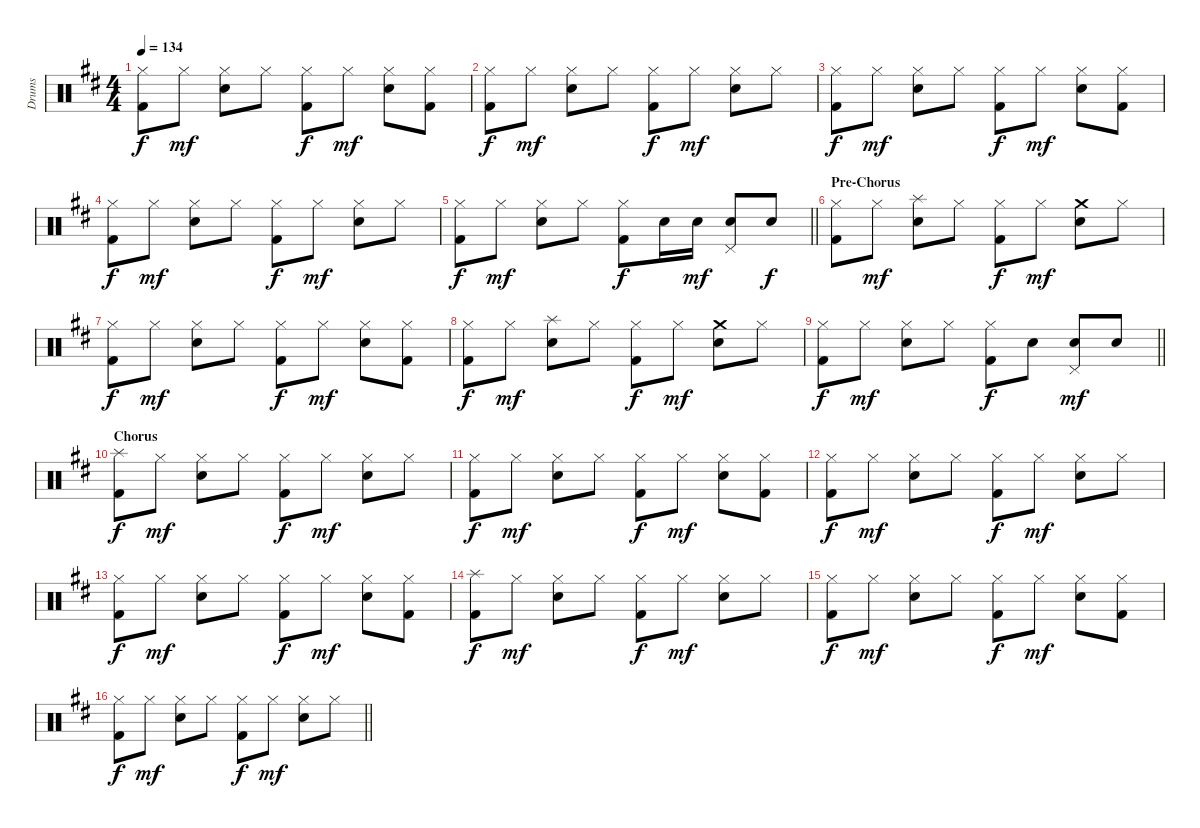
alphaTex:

\track ("Drums" "Drums") {instrument percussion}
\staff {score}
\articulation defaults
\ts (4 4)
\tempo 134
\clef neutral
\ks d
("Hi-Hat (closed)" "Kick (hit) 2").8{dy f} "Hi-Hat (closed)".8{dy mf} ("Hi-Hat (closed)" "Snare (hit) 2").8 "Hi-Hat (closed)".8 ("Hi-Hat (closed)" "Kick (hit) 2").8{dy f} "Hi-Hat (closed)".8{dy mf} ("Hi-Hat (closed)" "Snare (hit) 2").8 ("Hi-Hat (closed)" "Kick (hit) 2").8 |
("Hi-Hat (closed)" "Kick (hit) 2").8{dy f} "Hi-Hat (closed)".8{dy mf} ("Hi-Hat (closed)" "Snare (hit) 2").8 "Hi-Hat (closed)".8 ("Hi-Hat (closed)" "Kick (hit) 2").8{dy f} "Hi-Hat (closed)".8{dy mf} ("Hi-Hat (closed)" "Snare (hit) 2").8 "Hi-Hat (closed)".8 |
("Hi-Hat (closed)" "Kick (hit) 2").8{dy f} "Hi-Hat (closed)".8{dy mf} ("Hi-Hat (closed)" "Snare (hit) 2").8 "Hi-Hat (closed)".8 ("Hi-Hat (closed)" "Kick (hit) 2").8{dy f} "Hi-Hat (closed)".8{dy mf} ("Hi-Hat (closed)" "Snare (hit) 2").8 ("Hi-Hat (closed)" "Kick (hit) 2").8 |
("Hi-Hat (closed)" "Kick (hit) 2").8{dy f} "Hi-Hat (closed)".8{dy mf} ("Hi-Hat (closed)" "Snare (hit) 2").8 "Hi-Hat (closed)".8 ("Hi-Hat (closed)" "Kick (hit) 2").8{dy f} "Hi-Hat (closed)".8{dy mf} ("Hi-Hat (closed)" "Snare (hit) 2").8 "Hi-Hat (closed)".8 |
\barLineRight lightlight
("Hi-Hat (closed)" "Kick (hit) 2").8{dy f} "Hi-Hat (closed)".8{dy mf} ("Hi-Hat (closed)" "Snare (hit) 2").8 "Hi-Hat (closed)".8 ("Hi-Hat (closed)" "Kick (hit) 2").8{dy f} "Snare (hit) 2".16 "Snare (hit) 2".16{dy mf} ("Pedal Hi-Hat (hit)" "Snare (hit) 2").8 "Snare (hit) 2".8{dy f} |
\section ("" "Pre-Chorus")
("Hi-Hat (closed)" "Kick (hit) 2").8 "Hi-Hat (closed)".8{dy mf} ("Splash (hit)" "Snare (hit) 2").8 "Hi-Hat (closed)".8 ("Hi-Hat (closed)" "Kick (hit) 2").8{dy f} "Hi-Hat (closed)".8{dy mf} ("Crash medium (hit)" "Snare (hit) 2").8 "Hi-Hat (closed)".8 |
("Hi-Hat (closed)" "Kick (hit) 2").8{dy f} "Hi-Hat (closed)".8{dy mf} ("Hi-Hat (closed)" "Snare (hit) 2").8 "Hi-Hat (closed)".8 ("Hi-Hat (closed)" "Kick (hit) 2").8{dy f} "Hi-Hat (closed)".8{dy mf} ("Hi-Hat (closed)" "Snare (hit) 2").8 ("Hi-Hat (closed)" "Kick (hit) 2").8 |
("Hi-Hat (closed)" "Kick (hit) 2").8{dy f} "Hi-Hat (closed)".8{dy mf} ("Splash (hit)" "Snare (hit) 2").8 "Hi-Hat (closed)".8 ("Hi-Hat (closed)" "Kick (hit) 2").8{dy f} "Hi-Hat (closed)".8{dy mf} ("Crash medium (hit)" "Snare (hit) 2").8 "Hi-Hat (closed)".8 |
\barLineRight lightlight
("Hi-Hat (closed)" "Kick (hit) 2").8{dy f} "Hi-Hat (closed)".8{dy mf} ("Hi-Hat (closed)" "Snare (hit) 2").8 "Hi-Hat (closed)".8 ("Hi-Hat (closed)" "Kick (hit) 2").8{dy f} "Snare (hit) 2".8 ("Pedal Hi-Hat (hit)" "Snare (hit) 2").8{dy mf} "Snare (hit) 2".8 |
\section ("" "Chorus")
("Splash (hit)" "Kick (hit) 2").8{dy f} "Hi-Hat (closed)".8{dy mf} ("Hi-Hat (closed)" "Snare (hit) 2").8 "Hi-Hat (closed)".8 ("Hi-Hat (closed)" "Kick (hit) 2").8{dy f} "Hi-Hat (closed)".8{dy mf} ("Hi-Hat (closed)" "Snare (hit) 2").8 "Hi-Hat (closed)".8 |
("Hi-Hat (closed)" "Kick (hit) 2").8{dy f} "Hi-Hat (closed)".8{dy mf} ("Hi-Hat (closed)" "Snare (hit) 2").8 "Hi-Hat (closed)".8 ("Hi-Hat (closed)" "Kick (hit) 2").8{dy f} "Hi-Hat (closed)".8{dy mf} ("Hi-Hat (closed)" "Snare (hit) 2").8 ("Hi-Hat (closed)" "Kick (hit) 2").8 |
("Hi-Hat (closed)" "Kick (hit) 2").8{dy f} "Hi-Hat (closed)".8{dy mf} ("Hi-Hat (closed)" "Snare (hit) 2").8 "Hi-Hat (closed)".8 ("Hi-Hat (closed)" "Kick (hit) 2").8{dy f} "Hi-Hat (closed)".8{dy mf} ("Hi-Hat (closed)" "Snare (hit) 2").8 "Hi-Hat (closed)".8 |
("Hi-Hat (closed)" "Kick (hit) 2").8{dy f} "Hi-Hat (closed)".8{dy mf} ("Hi-Hat (closed)" "Snare (hit) 2").8 "Hi-Hat (closed)".8 ("Hi-Hat (closed)" "Kick (hit) 2").8{dy f} "Hi-Hat (closed)".8{dy mf} ("Hi-Hat (closed)" "Snare (hit) 2").8 ("Hi-Hat (closed)" "Kick (hit) 2").8 |
("Splash (hit)" "Kick (hit) 2").8{dy f} "Hi-Hat (closed)".8{dy mf} ("Hi-Hat (closed)" "Snare (hit) 2").8 "Hi-Hat (closed)".8 ("Hi-Hat (closed)" "Kick (hit) 2").8{dy f} "Hi-Hat (closed)".8{dy mf} ("Hi-Hat (closed)" "Snare (hit) 2").8 "Hi-Hat (closed)".8 |
("Hi-Hat (closed)" "Kick (hit) 2").8{dy f} "Hi-Hat (closed)".8{dy mf} ("Hi-Hat (closed)" "Snare (hit) 2").8 "Hi-Hat (closed)".8 ("Hi-Hat (closed)" "Kick (hit) 2").8{dy f} "Hi-Hat (closed)".8{dy mf} ("Hi-Hat (closed)" "Snare (hit) 2").8 ("Hi-Hat (closed)" "Kick (hit) 2").8 |
\barLineRight lightlight
("Hi-Hat (closed)" "Kick (hit) 2").8{dy f} "Hi-Hat (closed)".8{dy mf} ("Hi-Hat (closed)" "Snare (hit) 2").8 "Hi-Hat (closed)".8 ("Hi-Hat (closed)" "Kick (hit) 2").8{dy f} "Hi-Hat (closed)".8{dy mf} ("Hi-Hat (closed)" "Snare (hit) 2").8 "Hi-Hat (closed)".8
